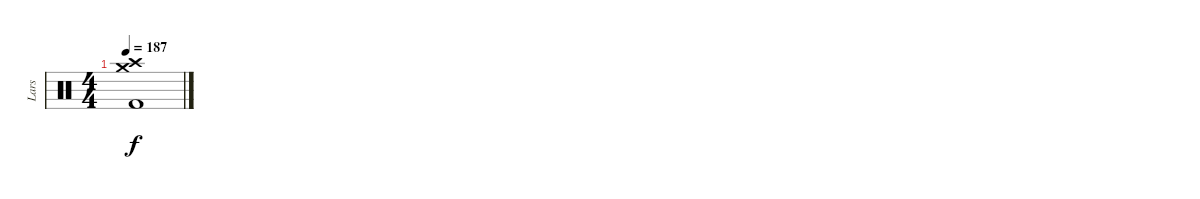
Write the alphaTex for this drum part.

\track ("Lars" "Lars") {instrument percussion}
\staff {score}
\articulation defaults
\ts (4 4)
\tempo 187
\clef neutral
\ks c
("Crash medium (hit)" "Crash high (hit)" "Kick (hit) 2").1{dy f}
